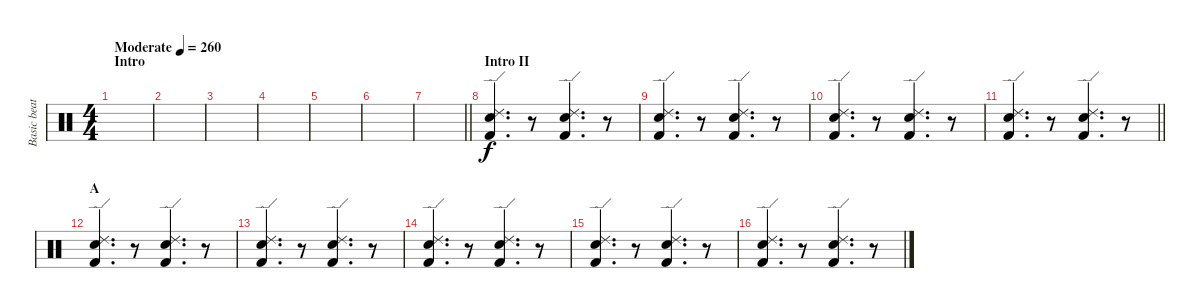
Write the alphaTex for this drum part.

\track ("Basic beat" "Basic beat") {instrument percussion}
\staff {score}
\articulation defaults
\ts (4 4)
\section ("" "Intro")
\tempo (260 "Moderate")
\clef neutral
\ks c
|
|
|
|
|
|
\barLineRight lightlight
|
\section ("" "Intro II")
("Ride (edge) 2" "Electric Snare (hit)" "Kick (hit) 2").4{d} r.8 ("Ride (edge) 2" "Electric Snare (hit)" "Kick (hit) 2").4{d} r.8 |
("Ride (edge) 2" "Electric Snare (hit)" "Kick (hit) 2").4{d} r.8 ("Ride (edge) 2" "Electric Snare (hit)" "Kick (hit) 2").4{d} r.8 |
("Ride (edge) 2" "Electric Snare (hit)" "Kick (hit) 2").4{d} r.8 ("Ride (edge) 2" "Electric Snare (hit)" "Kick (hit) 2").4{d} r.8 |
\barLineRight lightlight
("Ride (edge) 2" "Electric Snare (hit)" "Kick (hit) 2").4{d} r.8 ("Ride (edge) 2" "Electric Snare (hit)" "Kick (hit) 2").4{d} r.8 |
\section ("" "A")
("Ride (edge) 2" "Electric Snare (hit)" "Kick (hit) 2").4{d} r.8 ("Ride (edge) 2" "Electric Snare (hit)" "Kick (hit) 2").4{d} r.8 |
("Ride (edge) 2" "Electric Snare (hit)" "Kick (hit) 2").4{d} r.8 ("Ride (edge) 2" "Electric Snare (hit)" "Kick (hit) 2").4{d} r.8 |
("Ride (edge) 2" "Electric Snare (hit)" "Kick (hit) 2").4{d} r.8 ("Ride (edge) 2" "Electric Snare (hit)" "Kick (hit) 2").4{d} r.8 |
("Ride (edge) 2" "Electric Snare (hit)" "Kick (hit) 2").4{d} r.8 ("Ride (edge) 2" "Electric Snare (hit)" "Kick (hit) 2").4{d} r.8 |
("Ride (edge) 2" "Electric Snare (hit)" "Kick (hit) 2").4{d} r.8 ("Ride (edge) 2" "Electric Snare (hit)" "Kick (hit) 2").4{d} r.8
